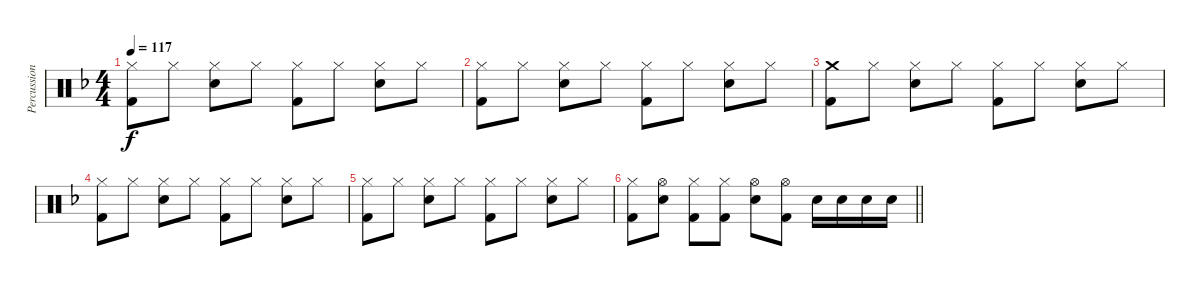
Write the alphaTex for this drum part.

\track ("Percussion" "Percussion") {instrument percussion}
\staff {score}
\articulation defaults
\ts (4 4)
\tempo 117
\clef neutral
\ks f
("Hi-Hat (closed)" "Kick (hit) 2").8{dy f} "Hi-Hat (closed)".8 ("Hi-Hat (closed)" "Electric Snare (hit)").8 "Hi-Hat (closed)".8 ("Hi-Hat (closed)" "Kick (hit) 2").8 "Hi-Hat (closed)".8 ("Hi-Hat (closed)" "Electric Snare (hit)").8 "Hi-Hat (closed)".8 |
("Hi-Hat (closed)" "Kick (hit) 2").8 "Hi-Hat (closed)".8 ("Hi-Hat (closed)" "Electric Snare (hit)").8 "Hi-Hat (closed)".8 ("Hi-Hat (closed)" "Kick (hit) 2").8 "Hi-Hat (closed)".8 ("Hi-Hat (closed)" "Electric Snare (hit)").8 "Hi-Hat (closed)".8 |
("Crash medium (hit)" "Kick (hit) 2").8 "Hi-Hat (closed)".8 ("Hi-Hat (closed)" "Electric Snare (hit)").8 "Hi-Hat (closed)".8 ("Hi-Hat (closed)" "Kick (hit) 2").8 "Hi-Hat (closed)".8 ("Hi-Hat (closed)" "Electric Snare (hit)").8 "Hi-Hat (closed)".8 |
("Hi-Hat (closed)" "Kick (hit) 2").8 "Hi-Hat (closed)".8 ("Hi-Hat (closed)" "Electric Snare (hit)").8 "Hi-Hat (closed)".8 ("Hi-Hat (closed)" "Kick (hit) 2").8 "Hi-Hat (closed)".8 ("Hi-Hat (closed)" "Electric Snare (hit)").8 "Hi-Hat (closed)".8 |
("Hi-Hat (closed)" "Kick (hit) 2").8 "Hi-Hat (closed)".8 ("Hi-Hat (closed)" "Electric Snare (hit)").8 "Hi-Hat (closed)".8 ("Hi-Hat (closed)" "Kick (hit) 2").8 "Hi-Hat (closed)".8 ("Hi-Hat (closed)" "Electric Snare (hit)").8 "Hi-Hat (closed)".8 |
\barLineRight lightlight
("Hi-Hat (closed)" "Kick (hit) 2").8 ("Hi-Hat (open)" "Electric Snare (hit)").8 ("Hi-Hat (closed)" "Kick (hit) 2").8 ("Hi-Hat (closed)" "Kick (hit) 2").8 ("Hi-Hat (open)" "Electric Snare (hit)").8 ("Hi-Hat (open)" "Kick (hit) 2").8 "Electric Snare (hit)".16 "Electric Snare (hit)".16 "Electric Snare (hit)".16 "Electric Snare (hit)".16
